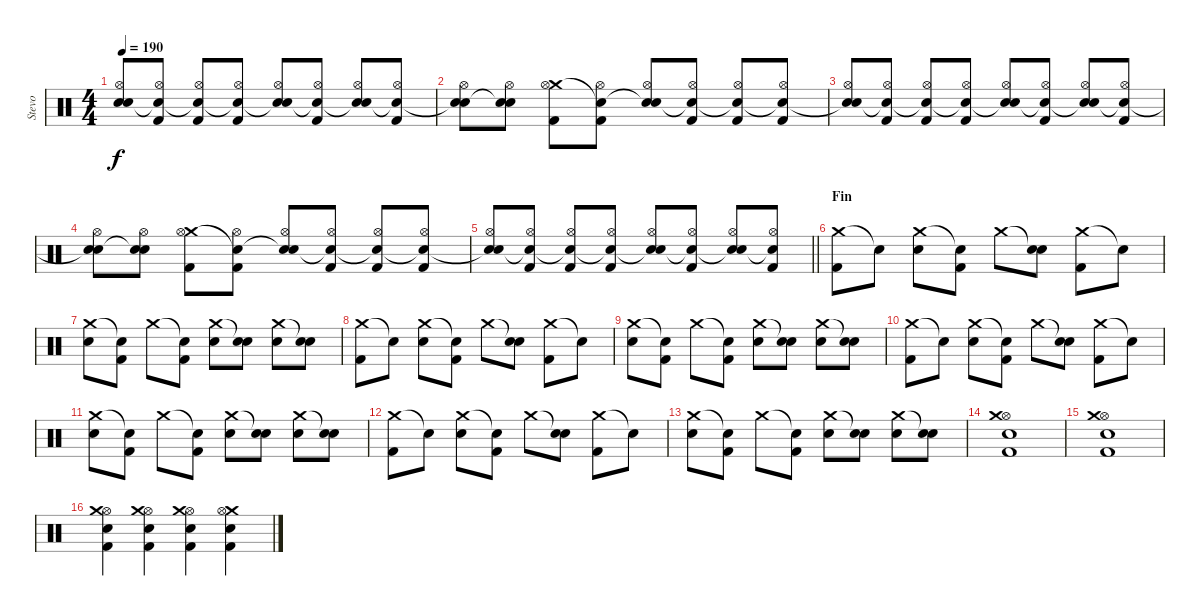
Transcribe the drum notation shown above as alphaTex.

\track ("Stevo" "Stevo") {instrument percussion}
\staff {score}
\articulation defaults
\ts (4 4)
\tempo 190
\clef neutral
\ks c
("Snare (hit)"{t} "Hi-Hat (open)" "Electric Snare (hit)").8{dy f} ("Snare (hit)"{t} "Hi-Hat (open)" "Kick (hit) 2").8 ("Snare (hit)"{t} "Hi-Hat (open)" "Kick (hit) 2").8 ("Snare (hit)"{t} "Hi-Hat (open)" "Kick (hit) 2").8 ("Snare (hit)"{t} "Hi-Hat (open)" "Electric Snare (hit)").8 ("Snare (hit)"{t} "Hi-Hat (open)" "Kick (hit) 2").8 ("Snare (hit)"{t} "Hi-Hat (open)" "Electric Snare (hit)").8 ("Snare (hit)"{t} "Hi-Hat (open)" "Kick (hit) 2").8 |
("Snare (hit)"{t} "Hi-Hat (open)" "Electric Snare (hit)").8 ("Snare (hit)"{t} "Hi-Hat (open)" "Electric Snare (hit)").8 ("Crash medium (hit)" "Hi-Hat (open)" "Kick (hit) 2").8 ("Snare (hit)"{t} "Hi-Hat (open)" "Kick (hit) 2").8 ("Snare (hit)"{t} "Hi-Hat (open)" "Electric Snare (hit)").8 ("Snare (hit)"{t} "Hi-Hat (open)" "Kick (hit) 2").8 ("Snare (hit)"{t} "Hi-Hat (open)" "Kick (hit) 2").8 ("Snare (hit)"{t} "Hi-Hat (open)" "Kick (hit) 2").8 |
("Snare (hit)"{t} "Hi-Hat (open)" "Electric Snare (hit)").8 ("Snare (hit)"{t} "Hi-Hat (open)" "Kick (hit) 2").8 ("Snare (hit)"{t} "Hi-Hat (open)" "Kick (hit) 2").8 ("Snare (hit)"{t} "Hi-Hat (open)" "Kick (hit) 2").8 ("Snare (hit)"{t} "Hi-Hat (open)" "Electric Snare (hit)").8 ("Snare (hit)"{t} "Hi-Hat (open)" "Kick (hit) 2").8 ("Snare (hit)"{t} "Hi-Hat (open)" "Electric Snare (hit)").8 ("Snare (hit)"{t} "Hi-Hat (open)" "Kick (hit) 2").8 |
("Snare (hit)"{t} "Hi-Hat (open)" "Electric Snare (hit)").8 ("Snare (hit)"{t} "Hi-Hat (open)" "Electric Snare (hit)").8 ("Crash medium (hit)" "Hi-Hat (open)" "Kick (hit) 2").8 ("Snare (hit)"{t} "Hi-Hat (open)" "Kick (hit) 2").8 ("Snare (hit)"{t} "Hi-Hat (open)" "Electric Snare (hit)").8 ("Snare (hit)"{t} "Hi-Hat (open)" "Kick (hit) 2").8 ("Snare (hit)"{t} "Hi-Hat (open)" "Kick (hit) 2").8 ("Snare (hit)"{t} "Hi-Hat (open)" "Kick (hit) 2").8 |
\barLineRight lightlight
("Snare (hit)"{t} "Hi-Hat (open)" "Electric Snare (hit)").8 ("Snare (hit)"{t} "Hi-Hat (open)" "Kick (hit) 2").8 ("Snare (hit)"{t} "Hi-Hat (open)" "Kick (hit) 2").8 ("Snare (hit)"{t} "Hi-Hat (open)" "Kick (hit) 2").8 ("Snare (hit)"{t} "Hi-Hat (open)" "Electric Snare (hit)").8 ("Snare (hit)"{t} "Hi-Hat (open)" "Kick (hit) 2").8 ("Snare (hit)"{t} "Hi-Hat (open)" "Electric Snare (hit)").8 ("Snare (hit)"{t} "Hi-Hat (open)" "Kick (hit) 2").8 |
\section ("" "Fin")
("Crash medium (hit)" "Kick (hit) 2").8 "Snare (hit)"{t}.8 ("Crash medium (hit)" "Electric Snare (hit)").8 ("Snare (hit)"{t} "Kick (hit) 2").8 "Crash medium (hit)".8 ("Snare (hit)"{t} "Electric Snare (hit)").8 ("Crash medium (hit)" "Kick (hit) 2").8 "Snare (hit)"{t}.8 |
("Crash medium (hit)" "Electric Snare (hit)").8 ("Snare (hit)"{t} "Kick (hit) 2").8 "Crash medium (hit)".8 ("Snare (hit)"{t} "Kick (hit) 2").8 ("Crash medium (hit)" "Electric Snare (hit)").8 ("Snare (hit)"{t} "Electric Snare (hit)").8 ("Crash medium (hit)" "Electric Snare (hit)").8 ("Snare (hit)"{t} "Electric Snare (hit)").8 |
("Crash medium (hit)" "Kick (hit) 2").8 "Snare (hit)"{t}.8 ("Crash medium (hit)" "Electric Snare (hit)").8 ("Snare (hit)"{t} "Kick (hit) 2").8 "Crash medium (hit)".8 ("Snare (hit)"{t} "Electric Snare (hit)").8 ("Crash medium (hit)" "Kick (hit) 2").8 "Snare (hit)"{t}.8 |
("Crash medium (hit)" "Electric Snare (hit)").8 ("Snare (hit)"{t} "Kick (hit) 2").8 "Crash medium (hit)".8 ("Snare (hit)"{t} "Kick (hit) 2").8 ("Crash medium (hit)" "Electric Snare (hit)").8 ("Snare (hit)"{t} "Electric Snare (hit)").8 ("Crash medium (hit)" "Electric Snare (hit)").8 ("Snare (hit)"{t} "Electric Snare (hit)").8 |
("Crash medium (hit)" "Kick (hit) 2").8 "Snare (hit)"{t}.8 ("Crash medium (hit)" "Electric Snare (hit)").8 ("Snare (hit)"{t} "Kick (hit) 2").8 "Crash medium (hit)".8 ("Snare (hit)"{t} "Electric Snare (hit)").8 ("Crash medium (hit)" "Kick (hit) 2").8 "Snare (hit)"{t}.8 |
("Crash medium (hit)" "Electric Snare (hit)").8 ("Snare (hit)"{t} "Kick (hit) 2").8 "Crash medium (hit)".8 ("Snare (hit)"{t} "Kick (hit) 2").8 ("Crash medium (hit)" "Electric Snare (hit)").8 ("Snare (hit)"{t} "Electric Snare (hit)").8 ("Crash medium (hit)" "Electric Snare (hit)").8 ("Snare (hit)"{t} "Electric Snare (hit)").8 |
("Crash medium (hit)" "Kick (hit) 2").8 "Snare (hit)"{t}.8 ("Crash medium (hit)" "Electric Snare (hit)").8 ("Snare (hit)"{t} "Kick (hit) 2").8 "Crash medium (hit)".8 ("Snare (hit)"{t} "Electric Snare (hit)").8 ("Crash medium (hit)" "Kick (hit) 2").8 "Snare (hit)"{t}.8 |
("Crash medium (hit)" "Electric Snare (hit)").8 ("Snare (hit)"{t} "Kick (hit) 2").8 "Crash medium (hit)".8 ("Snare (hit)"{t} "Kick (hit) 2").8 ("Crash medium (hit)" "Electric Snare (hit)").8 ("Snare (hit)"{t} "Electric Snare (hit)").8 ("Crash medium (hit)" "Electric Snare (hit)").8 ("Snare (hit)"{t} "Electric Snare (hit)").8 |
("Hi-Hat (open)" "Crash medium (hit)" "Electric Snare (hit)" "Kick (hit) 2").1 |
("Hi-Hat (open)" "Crash medium (hit)" "Electric Snare (hit)" "Kick (hit) 2").1 |
("Hi-Hat (open)" "Crash medium (hit)" "Electric Snare (hit)" "Kick (hit) 2").4 ("Hi-Hat (open)" "Crash medium (hit)" "Electric Snare (hit)" "Kick (hit) 2").4 ("Hi-Hat (open)" "Crash medium (hit)" "Electric Snare (hit)" "Kick (hit) 2").4 ("Crash medium (hit)" "Hi-Hat (open)" "Electric Snare (hit)" "Kick (hit) 2").4
